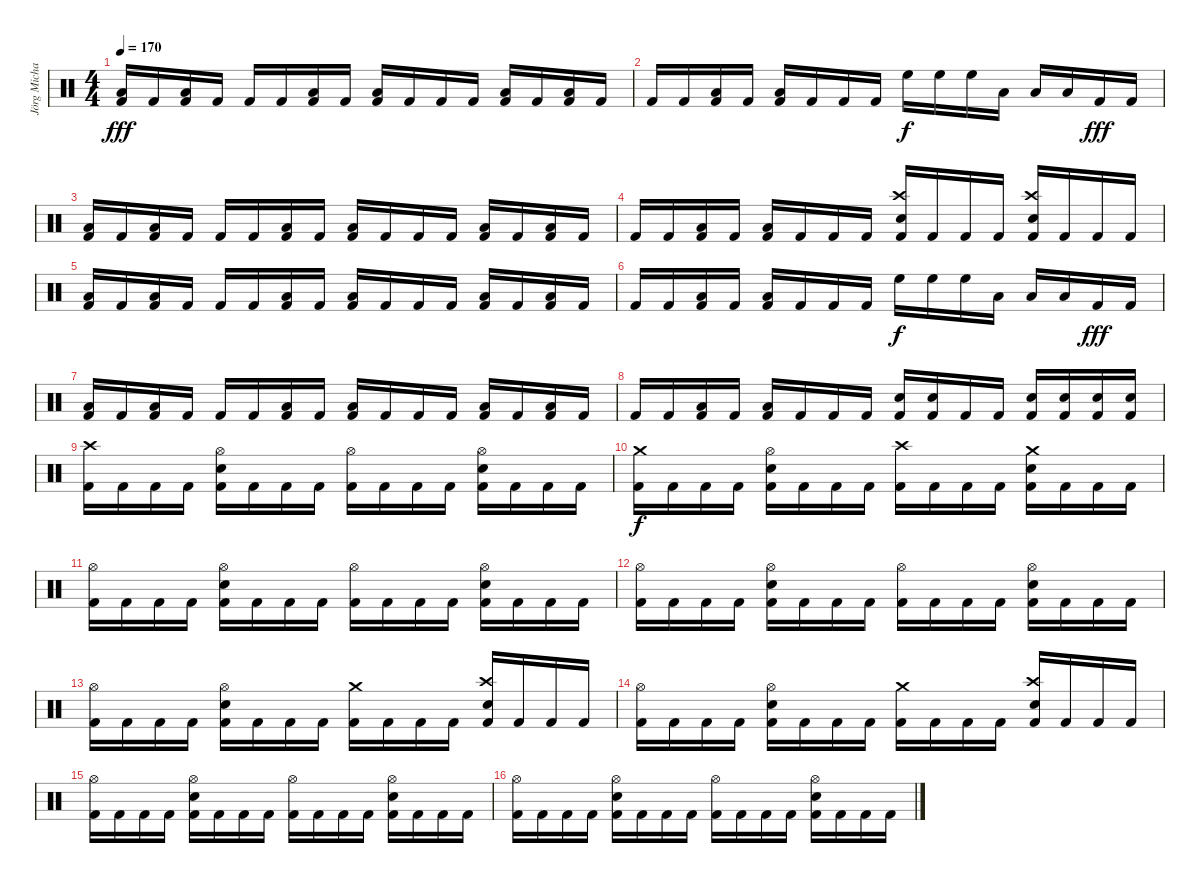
\track ("Jörg Michael" "Jörg Micha") {instrument percussion}
\staff {score}
\articulation defaults
\ts (4 4)
\tempo 170
\clef neutral
\ks c
("Low Floor Tom (hit)" "Kick (hit) 2").16{dy fff} "Kick (hit) 2".16 ("Low Floor Tom (hit)" "Kick (hit) 2").16 "Kick (hit) 2".16 "Kick (hit) 2".16 "Kick (hit) 2".16 ("Low Floor Tom (hit)" "Kick (hit) 2").16 "Kick (hit) 2".16 ("Low Floor Tom (hit)" "Kick (hit) 2").16 "Kick (hit) 2".16 "Kick (hit) 2".16 "Kick (hit) 2".16 ("Low Floor Tom (hit)" "Kick (hit) 2").16 "Kick (hit) 2".16 ("Low Floor Tom (hit)" "Kick (hit) 2").16 "Kick (hit) 2".16 |
"Kick (hit) 2".16 "Kick (hit) 2".16 ("Low Floor Tom (hit)" "Kick (hit) 2").16 "Kick (hit) 2".16 ("Low Floor Tom (hit)" "Kick (hit) 2").16 "Kick (hit) 2".16 "Kick (hit) 2".16 "Kick (hit) 2".16 "High Floor Tom (hit)".16{dy f} "High Floor Tom (hit)".16 "High Floor Tom (hit)".16 "Low Tom (hit)".16 "Low Tom (hit)".16 "Low Tom (hit)".16 "Kick (hit) 2".16{dy fff} "Kick (hit) 2".16 |
("Low Floor Tom (hit)" "Kick (hit) 2").16 "Kick (hit) 2".16 ("Low Floor Tom (hit)" "Kick (hit) 2").16 "Kick (hit) 2".16 "Kick (hit) 2".16 "Kick (hit) 2".16 ("Low Floor Tom (hit)" "Kick (hit) 2").16 "Kick (hit) 2".16 ("Low Floor Tom (hit)" "Kick (hit) 2").16 "Kick (hit) 2".16 "Kick (hit) 2".16 "Kick (hit) 2".16 ("Low Floor Tom (hit)" "Kick (hit) 2").16 "Kick (hit) 2".16 ("Low Floor Tom (hit)" "Kick (hit) 2").16 "Kick (hit) 2".16 |
"Kick (hit) 2".16 "Kick (hit) 2".16 ("Low Floor Tom (hit)" "Kick (hit) 2").16 "Kick (hit) 2".16 ("Low Floor Tom (hit)" "Kick (hit) 2").16 "Kick (hit) 2".16 "Kick (hit) 2".16 "Kick (hit) 2".16 ("Crash high (hit)" "Snare (hit) 2" "Kick (hit) 2").16 "Kick (hit) 2".16 "Kick (hit) 2".16 "Kick (hit) 2".16 ("Crash high (hit)" "Snare (hit) 2" "Kick (hit) 2").16 "Kick (hit) 2".16 "Kick (hit) 2".16 "Kick (hit) 2".16 |
("Low Floor Tom (hit)" "Kick (hit) 2").16 "Kick (hit) 2".16 ("Low Floor Tom (hit)" "Kick (hit) 2").16 "Kick (hit) 2".16 "Kick (hit) 2".16 "Kick (hit) 2".16 ("Low Floor Tom (hit)" "Kick (hit) 2").16 "Kick (hit) 2".16 ("Low Floor Tom (hit)" "Kick (hit) 2").16 "Kick (hit) 2".16 "Kick (hit) 2".16 "Kick (hit) 2".16 ("Low Floor Tom (hit)" "Kick (hit) 2").16 "Kick (hit) 2".16 ("Low Floor Tom (hit)" "Kick (hit) 2").16 "Kick (hit) 2".16 |
"Kick (hit) 2".16 "Kick (hit) 2".16 ("Low Floor Tom (hit)" "Kick (hit) 2").16 "Kick (hit) 2".16 ("Low Floor Tom (hit)" "Kick (hit) 2").16 "Kick (hit) 2".16 "Kick (hit) 2".16 "Kick (hit) 2".16 "High Floor Tom (hit)".16{dy f} "High Floor Tom (hit)".16 "High Floor Tom (hit)".16 "Low Tom (hit)".16 "Low Tom (hit)".16 "Low Tom (hit)".16 "Kick (hit) 2".16{dy fff} "Kick (hit) 2".16 |
("Low Floor Tom (hit)" "Kick (hit) 2").16 "Kick (hit) 2".16 ("Low Floor Tom (hit)" "Kick (hit) 2").16 "Kick (hit) 2".16 "Kick (hit) 2".16 "Kick (hit) 2".16 ("Low Floor Tom (hit)" "Kick (hit) 2").16 "Kick (hit) 2".16 ("Low Floor Tom (hit)" "Kick (hit) 2").16 "Kick (hit) 2".16 "Kick (hit) 2".16 "Kick (hit) 2".16 ("Low Floor Tom (hit)" "Kick (hit) 2").16 "Kick (hit) 2".16 ("Low Floor Tom (hit)" "Kick (hit) 2").16 "Kick (hit) 2".16 |
"Kick (hit) 2".16 "Kick (hit) 2".16 ("Low Floor Tom (hit)" "Kick (hit) 2").16 "Kick (hit) 2".16 ("Low Floor Tom (hit)" "Kick (hit) 2").16 "Kick (hit) 2".16 "Kick (hit) 2".16 "Kick (hit) 2".16 ("Snare (hit) 2" "Kick (hit) 2").16 ("Snare (hit) 2" "Kick (hit) 2").16 "Kick (hit) 2".16 "Kick (hit) 2".16 ("Snare (hit) 2" "Kick (hit) 2").16 ("Snare (hit) 2" "Kick (hit) 2").16 ("Snare (hit) 2" "Kick (hit) 2").16 ("Snare (hit) 2" "Kick (hit) 2").16 |
("Crash high (hit)" "Kick (hit) 2").16 "Kick (hit) 2".16 "Kick (hit) 2".16 "Kick (hit) 2".16 ("Hi-Hat (open)" "Snare (hit) 2" "Kick (hit) 2").16 "Kick (hit) 2".16 "Kick (hit) 2".16 "Kick (hit) 2".16 ("Hi-Hat (open)" "Kick (hit) 2").16 "Kick (hit) 2".16 "Kick (hit) 2".16 "Kick (hit) 2".16 ("Hi-Hat (open)" "Snare (hit) 2" "Kick (hit) 2").16 "Kick (hit) 2".16 "Kick (hit) 2".16 "Kick (hit) 2".16 |
("Crash medium (hit)" "Kick (hit) 2").16{dy f} "Kick (hit) 2".16 "Kick (hit) 2".16 "Kick (hit) 2".16 ("Hi-Hat (open)" "Snare (hit) 2" "Kick (hit) 2").16 "Kick (hit) 2".16 "Kick (hit) 2".16 "Kick (hit) 2".16 ("Crash high (hit)" "Kick (hit) 2").16 "Kick (hit) 2".16 "Kick (hit) 2".16 "Kick (hit) 2".16 ("Crash medium (hit)" "Snare (hit) 2" "Kick (hit) 2").16 "Kick (hit) 2".16 "Kick (hit) 2".16 "Kick (hit) 2".16 |
("Hi-Hat (open)" "Kick (hit) 2").16 "Kick (hit) 2".16 "Kick (hit) 2".16 "Kick (hit) 2".16 ("Hi-Hat (open)" "Snare (hit) 2" "Kick (hit) 2").16 "Kick (hit) 2".16 "Kick (hit) 2".16 "Kick (hit) 2".16 ("Hi-Hat (open)" "Kick (hit) 2").16 "Kick (hit) 2".16 "Kick (hit) 2".16 "Kick (hit) 2".16 ("Hi-Hat (open)" "Snare (hit) 2" "Kick (hit) 2").16 "Kick (hit) 2".16 "Kick (hit) 2".16 "Kick (hit) 2".16 |
("Hi-Hat (open)" "Kick (hit) 2").16 "Kick (hit) 2".16 "Kick (hit) 2".16 "Kick (hit) 2".16 ("Hi-Hat (open)" "Snare (hit) 2" "Kick (hit) 2").16 "Kick (hit) 2".16 "Kick (hit) 2".16 "Kick (hit) 2".16 ("Hi-Hat (open)" "Kick (hit) 2").16 "Kick (hit) 2".16 "Kick (hit) 2".16 "Kick (hit) 2".16 ("Hi-Hat (open)" "Snare (hit) 2" "Kick (hit) 2").16 "Kick (hit) 2".16 "Kick (hit) 2".16 "Kick (hit) 2".16 |
("Hi-Hat (open)" "Kick (hit) 2").16 "Kick (hit) 2".16 "Kick (hit) 2".16 "Kick (hit) 2".16 ("Hi-Hat (open)" "Snare (hit) 2" "Kick (hit) 2").16 "Kick (hit) 2".16 "Kick (hit) 2".16 "Kick (hit) 2".16 ("Crash medium (hit)" "Kick (hit) 2").16 "Kick (hit) 2".16 "Kick (hit) 2".16 "Kick (hit) 2".16 ("Crash high (hit)" "Snare (hit) 2" "Kick (hit) 2").16 "Kick (hit) 2".16 "Kick (hit) 2".16 "Kick (hit) 2".16 |
("Hi-Hat (open)" "Kick (hit) 2").16 "Kick (hit) 2".16 "Kick (hit) 2".16 "Kick (hit) 2".16 ("Hi-Hat (open)" "Snare (hit) 2" "Kick (hit) 2").16 "Kick (hit) 2".16 "Kick (hit) 2".16 "Kick (hit) 2".16 ("Crash medium (hit)" "Kick (hit) 2").16 "Kick (hit) 2".16 "Kick (hit) 2".16 "Kick (hit) 2".16 ("Crash high (hit)" "Snare (hit) 2" "Kick (hit) 2").16 "Kick (hit) 2".16 "Kick (hit) 2".16 "Kick (hit) 2".16 |
("Hi-Hat (open)" "Kick (hit) 2").16 "Kick (hit) 2".16 "Kick (hit) 2".16 "Kick (hit) 2".16 ("Hi-Hat (open)" "Snare (hit) 2" "Kick (hit) 2").16 "Kick (hit) 2".16 "Kick (hit) 2".16 "Kick (hit) 2".16 ("Hi-Hat (open)" "Kick (hit) 2").16 "Kick (hit) 2".16 "Kick (hit) 2".16 "Kick (hit) 2".16 ("Hi-Hat (open)" "Snare (hit) 2" "Kick (hit) 2").16 "Kick (hit) 2".16 "Kick (hit) 2".16 "Kick (hit) 2".16 |
("Hi-Hat (open)" "Kick (hit) 2").16 "Kick (hit) 2".16 "Kick (hit) 2".16 "Kick (hit) 2".16 ("Hi-Hat (open)" "Snare (hit) 2" "Kick (hit) 2").16 "Kick (hit) 2".16 "Kick (hit) 2".16 "Kick (hit) 2".16 ("Hi-Hat (open)" "Kick (hit) 2").16 "Kick (hit) 2".16 "Kick (hit) 2".16 "Kick (hit) 2".16 ("Hi-Hat (open)" "Snare (hit) 2" "Kick (hit) 2").16 "Kick (hit) 2".16 "Kick (hit) 2".16 "Kick (hit) 2".16
